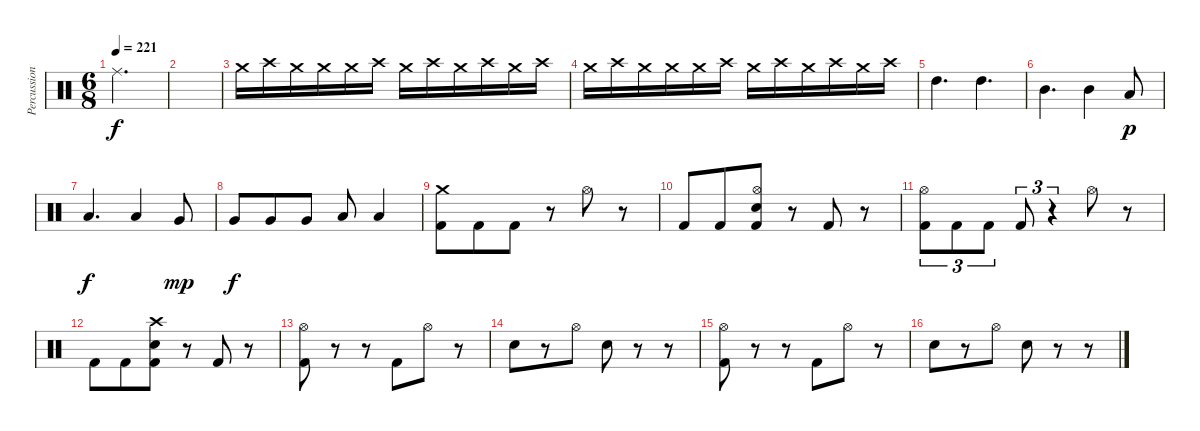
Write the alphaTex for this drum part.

\track ("Percussion" "Percussion") {instrument percussion}
\staff {score}
\articulation defaults
\ts (6 8)
\tempo 221
\clef neutral
\ks c "Ride (middle)".2{d dy f}
|
|
"Crash medium (hit)".16{volume 1} "Crash high (hit)".16{volume 13} "Crash medium (hit)".16 "Crash medium (hit)".16 "Crash medium (hit)".16 "Crash high (hit)".16 "Crash medium (hit)".16 "Crash high (hit)".16 "Crash medium (hit)".16 "Crash high (hit)".16 "Crash medium (hit)".16 "Crash high (hit)".16 |
"Crash medium (hit)".16 "Crash high (hit)".16 "Crash medium (hit)".16 "Crash medium (hit)".16 "Crash medium (hit)".16 "Crash high (hit)".16 "Crash medium (hit)".16 "Crash high (hit)".16 "Crash medium (hit)".16 "Crash high (hit)".16 "Crash medium (hit)".16 "Crash high (hit)".16 |
"High Tom (hit)".4{d} "High Tom (hit)".4{d} |
"Mid Tom (hit)".4{d} "Mid Tom (hit)".4 "Low Tom (hit)".8{dy p} |
"Low Tom (hit)".4{d dy f} "Low Tom (hit)".4 "Very Low Tom (hit)".8{dy mp} |
"Very Low Tom (hit)".8{dy f} "Very Low Tom (hit)".8 "Very Low Tom (hit)".8 "Low Floor Tom (hit)".8 "Low Floor Tom (hit)".4 |
("Crash medium (hit)" "Kick (hit) 2").8 "Kick (hit) 2".8 "Kick (hit) 2".8 r.8 "Hi-Hat (open)".8 r.8 |
"Kick (hit) 2".8 "Kick (hit) 2".8 ("Hi-Hat (open)" "Snare (hit) 2" "Kick (hit) 2").8 r.8 "Kick (hit) 2".8 r.8 |
("Hi-Hat (open)" "Kick (hit) 2").8{tu (3 2)} "Kick (hit) 2".8{tu (3 2)} "Kick (hit) 2".8{tu (3 2)} "Kick (hit) 2".8{tu (3 2)} r.4{tu (3 2)} "Hi-Hat (open)".8 r.8 |
"Kick (hit) 2".8 "Kick (hit) 2".8 ("Crash high (hit)" "Snare (hit) 2" "Kick (hit) 2").8 r.8 "Kick (hit) 2".8 r.8 |
("Hi-Hat (open)" "Kick (hit) 2").8 r.8 r.8 "Kick (hit) 2".8 "Hi-Hat (open)".8 r.8 |
"Snare (hit) 2".8 r.8 "Hi-Hat (open)".8 "Snare (hit) 2".8 r.8 r.8 |
("Hi-Hat (open)" "Kick (hit) 2").8 r.8 r.8 "Kick (hit) 2".8 "Hi-Hat (open)".8 r.8 |
"Snare (hit) 2".8 r.8 "Hi-Hat (open)".8 "Snare (hit) 2".8 r.8 r.8
